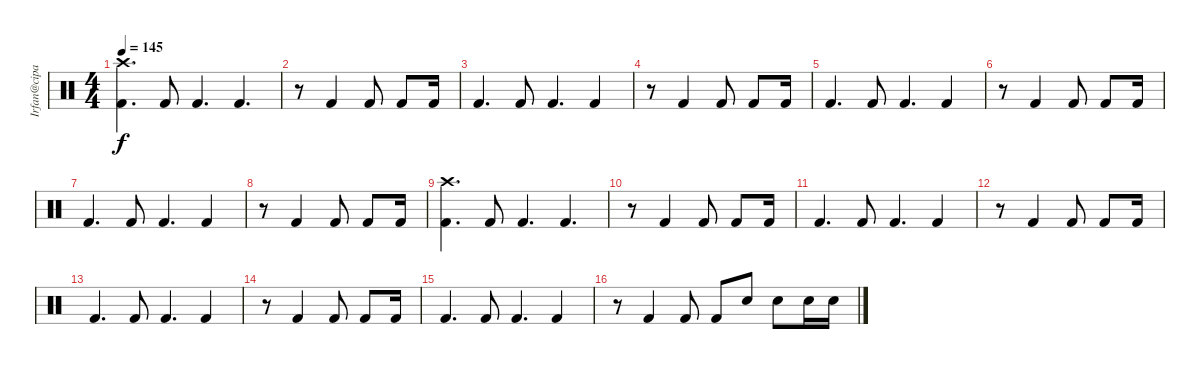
\track ("Irfan@cipan" "Irfan@cipa") {instrument percussion}
\staff {score}
\articulation defaults
\ts (4 4)
\tempo 145
\clef neutral
\ks c
("Crash high (hit)" "Kick (hit) 2").4{d dy f} "Kick (hit) 2".8 "Kick (hit) 2".4{d} "Kick (hit) 2".4{d} |
r.8 "Kick (hit) 2".4 "Kick (hit) 2".8 "Kick (hit) 2".8 "Kick (hit) 2".16 |
"Kick (hit) 2".4{d} "Kick (hit) 2".8 "Kick (hit) 2".4{d} "Kick (hit) 2".4 |
r.8 "Kick (hit) 2".4 "Kick (hit) 2".8 "Kick (hit) 2".8 "Kick (hit) 2".16 |
"Kick (hit) 2".4{d} "Kick (hit) 2".8 "Kick (hit) 2".4{d} "Kick (hit) 2".4 |
r.8 "Kick (hit) 2".4 "Kick (hit) 2".8 "Kick (hit) 2".8 "Kick (hit) 2".16 |
"Kick (hit) 2".4{d} "Kick (hit) 2".8 "Kick (hit) 2".4{d} "Kick (hit) 2".4 |
r.8 "Kick (hit) 2".4 "Kick (hit) 2".8 "Kick (hit) 2".8 "Kick (hit) 2".16 |
("Crash high (hit)" "Kick (hit) 2").4{d} "Kick (hit) 2".8 "Kick (hit) 2".4{d} "Kick (hit) 2".4{d} |
r.8 "Kick (hit) 2".4 "Kick (hit) 2".8 "Kick (hit) 2".8 "Kick (hit) 2".16 |
"Kick (hit) 2".4{d} "Kick (hit) 2".8 "Kick (hit) 2".4{d} "Kick (hit) 2".4 |
r.8 "Kick (hit) 2".4 "Kick (hit) 2".8 "Kick (hit) 2".8 "Kick (hit) 2".16 |
"Kick (hit) 2".4{d} "Kick (hit) 2".8 "Kick (hit) 2".4{d} "Kick (hit) 2".4 |
r.8 "Kick (hit) 2".4 "Kick (hit) 2".8 "Kick (hit) 2".8 "Kick (hit) 2".16 |
"Kick (hit) 2".4{d} "Kick (hit) 2".8 "Kick (hit) 2".4{d} "Kick (hit) 2".4 |
r.8 "Kick (hit) 2".4 "Kick (hit) 2".8 "Kick (hit) 2".8 "Electric Snare (hit)".8 "Electric Snare (hit)".8 "Electric Snare (hit)".16 "Electric Snare (hit)".16
